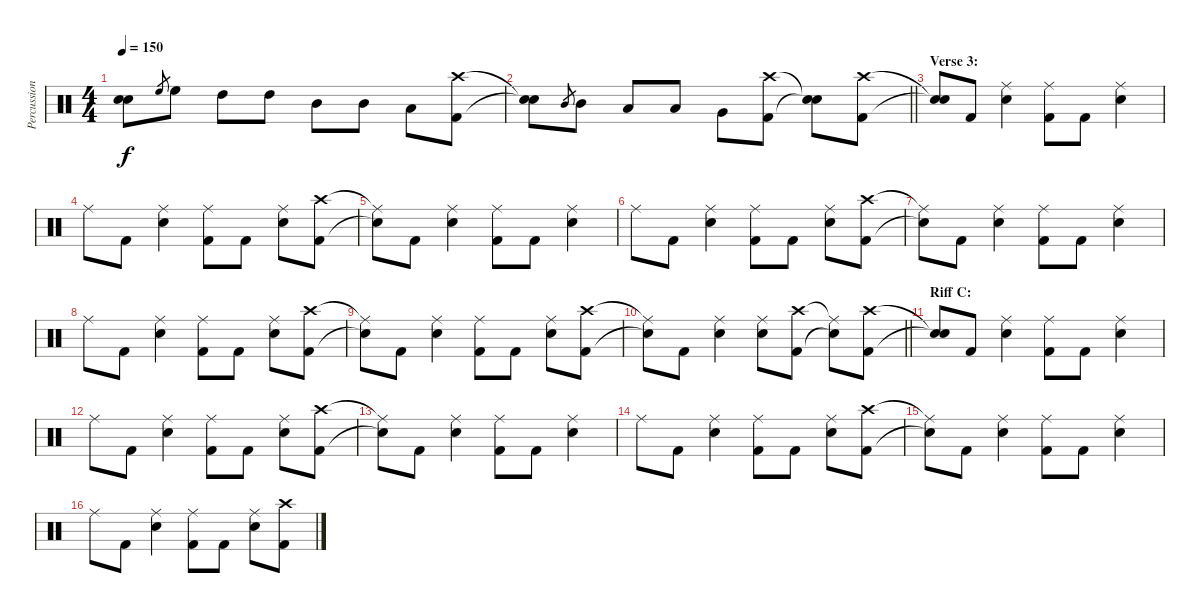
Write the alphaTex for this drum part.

\track ("Percussion" "Percussion") {instrument percussion}
\staff {score}
\articulation defaults
\ts (4 4)
\tempo 150
\clef neutral
\ks c
("Snare (hit)"{t} "Snare (hit)"{t}).8{dy f} "High Floor Tom (hit)".8{gr} "High Floor Tom (hit)".8 "High Tom (hit)".8 "High Tom (hit)".8 "Mid Tom (hit)".8 "Mid Tom (hit)".8 "Low Tom (hit)".8 ("Crash high (hit)" "Kick (hit) 2").8 |
\barLineRight lightlight
("Snare (hit)"{t} "Snare (hit)"{t}).8 "Mid Tom (hit)".8{gr} "Mid Tom (hit)".8 "Low Tom (hit)".8 "Low Tom (hit)".8 "Very Low Tom (hit)".8 ("Crash high (hit)" "Kick (hit) 2").8 ("Snare (hit)"{t} "Snare (hit)"{t}).8 ("Crash high (hit)" "Kick (hit) 2").8 |
\section ("" "Verse 3:")
("Snare (hit)"{t} "Snare (hit)"{t}).8 "Kick (hit) 2".8 ("Ride (middle)" "Snare (hit) 2").4 ("Ride (middle)" "Kick (hit) 2").8 "Kick (hit) 2".8 ("Ride (middle)" "Snare (hit) 2").4 |
"Ride (middle)".8 "Kick (hit) 2".8 ("Ride (middle)" "Snare (hit) 2").4 ("Ride (middle)" "Kick (hit) 2").8 "Kick (hit) 2".8 ("Ride (middle)" "Snare (hit) 2").8 ("Crash high (hit)" "Kick (hit) 2").8 |
("Ride (middle)"{t} "Snare (hit)"{t}).8 "Kick (hit) 2".8 ("Ride (middle)" "Snare (hit) 2").4 ("Ride (middle)" "Kick (hit) 2").8 "Kick (hit) 2".8 ("Ride (middle)" "Snare (hit) 2").4 |
"Ride (middle)".8 "Kick (hit) 2".8 ("Ride (middle)" "Snare (hit) 2").4 ("Ride (middle)" "Kick (hit) 2").8 "Kick (hit) 2".8 ("Ride (middle)" "Snare (hit) 2").8 ("Crash high (hit)" "Kick (hit) 2").8 |
("Ride (middle)"{t} "Snare (hit)"{t}).8 "Kick (hit) 2".8 ("Ride (middle)" "Snare (hit) 2").4 ("Ride (middle)" "Kick (hit) 2").8 "Kick (hit) 2".8 ("Ride (middle)" "Snare (hit) 2").4 |
"Ride (middle)".8 "Kick (hit) 2".8 ("Ride (middle)" "Snare (hit) 2").4 ("Ride (middle)" "Kick (hit) 2").8 "Kick (hit) 2".8 ("Ride (middle)" "Snare (hit) 2").8 ("Crash high (hit)" "Kick (hit) 2").8 |
("Ride (middle)"{t} "Snare (hit)"{t}).8 "Kick (hit) 2".8 ("Ride (middle)" "Snare (hit) 2").4 ("Ride (middle)" "Kick (hit) 2").8 "Kick (hit) 2".8 ("Ride (middle)" "Snare (hit) 2").8 ("Crash high (hit)" "Kick (hit) 2").8 |
\barLineRight lightlight
("Ride (middle)"{t} "Snare (hit)"{t}).8 "Kick (hit) 2".8 ("Ride (middle)" "Snare (hit) 2").4 ("Ride (middle)" "Snare (hit) 2").8 ("Crash high (hit)" "Kick (hit) 2").8 ("Ride (middle)"{t} "Snare (hit)"{t}).8 ("Crash high (hit)" "Kick (hit) 2").8 |
\section ("" "Riff C:")
("Snare (hit)"{t} "Snare (hit)"{t}).8 "Kick (hit) 2".8 ("Ride (middle)" "Snare (hit) 2").4 ("Ride (middle)" "Kick (hit) 2").8 "Kick (hit) 2".8 ("Ride (middle)" "Snare (hit) 2").4 |
"Ride (middle)".8 "Kick (hit) 2".8 ("Ride (middle)" "Snare (hit) 2").4 ("Ride (middle)" "Kick (hit) 2").8 "Kick (hit) 2".8 ("Ride (middle)" "Snare (hit) 2").8 ("Crash high (hit)" "Kick (hit) 2").8 |
("Ride (middle)"{t} "Snare (hit)"{t}).8 "Kick (hit) 2".8 ("Ride (middle)" "Snare (hit) 2").4 ("Ride (middle)" "Kick (hit) 2").8 "Kick (hit) 2".8 ("Ride (middle)" "Snare (hit) 2").4 |
"Ride (middle)".8 "Kick (hit) 2".8 ("Ride (middle)" "Snare (hit) 2").4 ("Ride (middle)" "Kick (hit) 2").8 "Kick (hit) 2".8 ("Ride (middle)" "Snare (hit) 2").8 ("Crash high (hit)" "Kick (hit) 2").8 |
("Ride (middle)"{t} "Snare (hit)"{t}).8 "Kick (hit) 2".8 ("Ride (middle)" "Snare (hit) 2").4 ("Ride (middle)" "Kick (hit) 2").8 "Kick (hit) 2".8 ("Ride (middle)" "Snare (hit) 2").4 |
"Ride (middle)".8 "Kick (hit) 2".8 ("Ride (middle)" "Snare (hit) 2").4 ("Ride (middle)" "Kick (hit) 2").8 "Kick (hit) 2".8 ("Ride (middle)" "Snare (hit) 2").8 ("Crash high (hit)" "Kick (hit) 2").8
